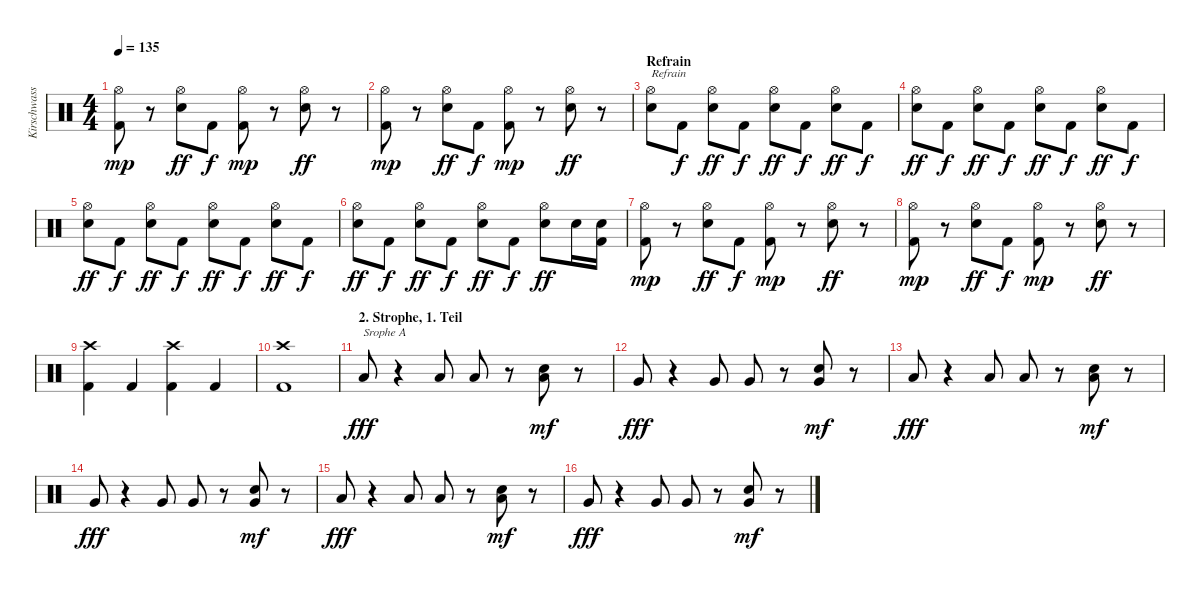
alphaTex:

\track ("Kirschwasserkönig" "Kirschwass") {instrument percussion}
\staff {score}
\articulation defaults
\ts (4 4)
\tempo 135
\clef neutral
\ks c
("Hi-Hat (open)" "Kick (hit) 2").8{dy mp} r.8 ("Hi-Hat (open)" "Electric Snare (hit)").8{dy ff} "Kick (hit) 2".8{dy f} ("Hi-Hat (open)" "Kick (hit) 2").8{dy mp} r.8 ("Hi-Hat (open)" "Electric Snare (hit)").8{dy ff} r.8 |
("Hi-Hat (open)" "Kick (hit) 2").8{dy mp} r.8 ("Hi-Hat (open)" "Electric Snare (hit)").8{dy ff} "Kick (hit) 2".8{dy f} ("Hi-Hat (open)" "Kick (hit) 2").8{dy mp} r.8 ("Hi-Hat (open)" "Electric Snare (hit)").8{dy ff} r.8 |
\section ("" "Refrain")
("Hi-Hat (open)" "Electric Snare (hit)").8{txt "Refrain"} "Kick (hit) 2".8{dy f} ("Hi-Hat (open)" "Electric Snare (hit)").8{dy ff} "Kick (hit) 2".8{dy f} ("Hi-Hat (open)" "Electric Snare (hit)").8{dy ff} "Kick (hit) 2".8{dy f} ("Hi-Hat (open)" "Electric Snare (hit)").8{dy ff} "Kick (hit) 2".8{dy f} |
("Hi-Hat (open)" "Electric Snare (hit)").8{dy ff} "Kick (hit) 2".8{dy f} ("Hi-Hat (open)" "Electric Snare (hit)").8{dy ff} "Kick (hit) 2".8{dy f} ("Hi-Hat (open)" "Electric Snare (hit)").8{dy ff} "Kick (hit) 2".8{dy f} ("Hi-Hat (open)" "Electric Snare (hit)").8{dy ff} "Kick (hit) 2".8{dy f} |
("Hi-Hat (open)" "Electric Snare (hit)").8{dy ff} "Kick (hit) 2".8{dy f} ("Hi-Hat (open)" "Electric Snare (hit)").8{dy ff} "Kick (hit) 2".8{dy f} ("Hi-Hat (open)" "Electric Snare (hit)").8{dy ff} "Kick (hit) 2".8{dy f} ("Hi-Hat (open)" "Electric Snare (hit)").8{dy ff} "Kick (hit) 2".8{dy f} |
("Hi-Hat (open)" "Electric Snare (hit)").8{dy ff} "Kick (hit) 2".8{dy f} ("Hi-Hat (open)" "Electric Snare (hit)").8{dy ff} "Kick (hit) 2".8{dy f} ("Hi-Hat (open)" "Electric Snare (hit)").8{dy ff} "Kick (hit) 2".8{dy f} ("Hi-Hat (open)" "Electric Snare (hit)").8{dy ff} "Electric Snare (hit)".16 ("Kick (hit) 2" "Electric Snare (hit)").16 |
("Hi-Hat (open)" "Kick (hit) 2").8{dy mp} r.8 ("Hi-Hat (open)" "Electric Snare (hit)").8{dy ff} "Kick (hit) 2".8{dy f} ("Hi-Hat (open)" "Kick (hit) 2").8{dy mp} r.8 ("Hi-Hat (open)" "Electric Snare (hit)").8{dy ff} r.8 |
("Hi-Hat (open)" "Kick (hit) 2").8{dy mp} r.8 ("Hi-Hat (open)" "Electric Snare (hit)").8{dy ff} "Kick (hit) 2".8{dy f} ("Hi-Hat (open)" "Kick (hit) 2").8{dy mp} r.8 ("Hi-Hat (open)" "Electric Snare (hit)").8{dy ff} r.8 |
("Crash high (hit)" "Kick (hit) 2").4 "Kick (hit) 2".4 ("Crash high (hit)" "Kick (hit) 2").4 "Kick (hit) 2".4 |
("Crash high (hit)" "Kick (hit) 2").1 |
\section ("" "2. Strophe, 1. Teil")
"Low Floor Tom (hit)".8{txt "Srophe A" dy fff} r.4 "Low Floor Tom (hit)".8 "Low Floor Tom (hit)".8 r.8 ("Electric Snare (hit)" "Low Floor Tom (hit)").8{dy mf} r.8 |
"Very Low Tom (hit)".8{dy fff} r.4 "Very Low Tom (hit)".8 "Very Low Tom (hit)".8 r.8 ("Electric Snare (hit)" "Very Low Tom (hit)").8{dy mf} r.8 |
"Low Floor Tom (hit)".8{dy fff} r.4 "Low Floor Tom (hit)".8 "Low Floor Tom (hit)".8 r.8 ("Electric Snare (hit)" "Low Floor Tom (hit)").8{dy mf} r.8 |
"Very Low Tom (hit)".8{dy fff} r.4 "Very Low Tom (hit)".8 "Very Low Tom (hit)".8 r.8 ("Electric Snare (hit)" "Very Low Tom (hit)").8{dy mf} r.8 |
"Low Floor Tom (hit)".8{dy fff} r.4 "Low Floor Tom (hit)".8 "Low Floor Tom (hit)".8 r.8 ("Electric Snare (hit)" "Low Floor Tom (hit)").8{dy mf} r.8 |
"Very Low Tom (hit)".8{dy fff} r.4 "Very Low Tom (hit)".8 "Very Low Tom (hit)".8 r.8 ("Electric Snare (hit)" "Very Low Tom (hit)").8{dy mf} r.8
